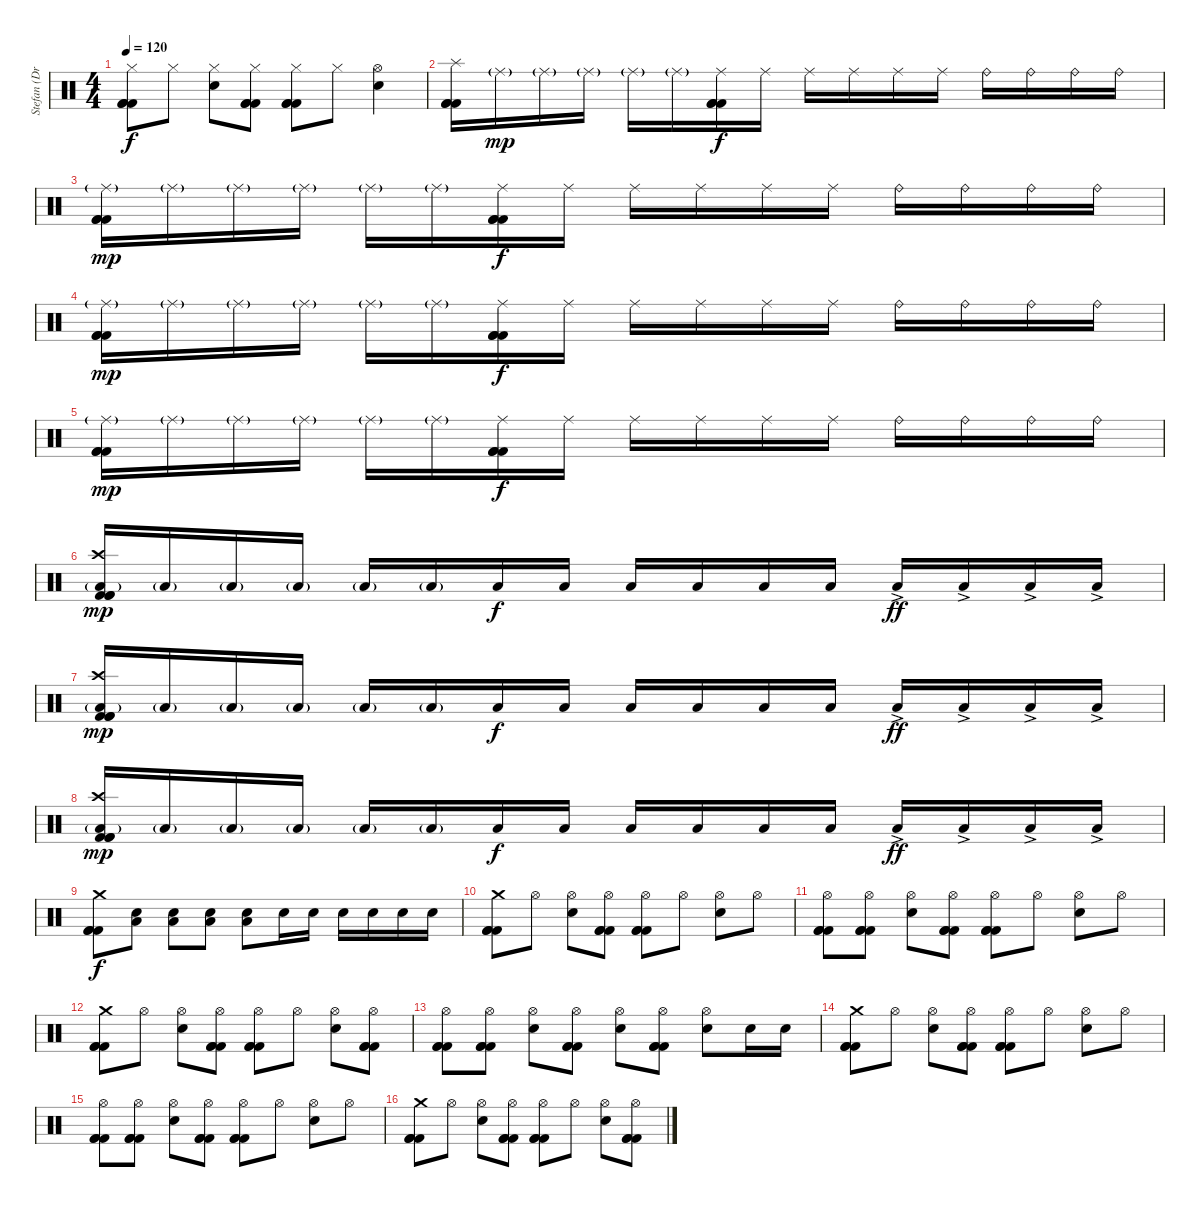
\track ("Stefan (Drums)" "Stefan (Dr") {instrument percussion}
\staff {score}
\articulation defaults
\ts (4 4)
\tempo 120
\clef neutral
\ks c
("Hi-Hat (closed)" "Kick (hit) 2" "Kick (hit) 2" "Kick (hit) 2").8{dy f} "Hi-Hat (closed)".8 ("Hi-Hat (closed)" "Snare (hit) 2").8 ("Hi-Hat (closed)" "Kick (hit) 2" "Kick (hit) 2" "Kick (hit) 2").8 ("Hi-Hat (closed)" "Kick (hit) 2" "Kick (hit) 2" "Kick (hit) 2").8 "Hi-Hat (closed)".8 ("Hi-Hat (open)" "Snare (hit) 2").4 |
("Splash (hit)" "Kick (hit) 2" "Kick (hit) 2" "Kick (hit) 2").16 "Ride (middle)"{g}.16{dy mp} "Ride (middle)"{g}.16 "Ride (middle)"{g}.16 "Ride (middle)"{g}.16 "Ride (middle)"{g}.16 ("Ride (middle)" "Kick (hit) 2" "Kick (hit) 2" "Kick (hit) 2").16{dy f} "Ride (middle)".16 "Ride (middle)".16 "Ride (middle)".16 "Ride (middle)".16 "Ride (middle)".16 "Ride (bell)".16 "Ride (bell)".16 "Ride (bell)".16 "Ride (bell)".16 |
("Ride (middle)"{g} "Kick (hit) 2" "Kick (hit) 2" "Kick (hit) 2").16{dy mp} "Ride (middle)"{g}.16 "Ride (middle)"{g}.16 "Ride (middle)"{g}.16 "Ride (middle)"{g}.16 "Ride (middle)"{g}.16 ("Ride (middle)" "Kick (hit) 2" "Kick (hit) 2" "Kick (hit) 2").16{dy f} "Ride (middle)".16 "Ride (middle)".16 "Ride (middle)".16 "Ride (middle)".16 "Ride (middle)".16 "Ride (bell)".16 "Ride (bell)".16 "Ride (bell)".16 "Ride (bell)".16 |
("Ride (middle)"{g} "Kick (hit) 2" "Kick (hit) 2" "Kick (hit) 2").16{dy mp} "Ride (middle)"{g}.16 "Ride (middle)"{g}.16 "Ride (middle)"{g}.16 "Ride (middle)"{g}.16 "Ride (middle)"{g}.16 ("Ride (middle)" "Kick (hit) 2" "Kick (hit) 2" "Kick (hit) 2").16{dy f} "Ride (middle)".16 "Ride (middle)".16 "Ride (middle)".16 "Ride (middle)".16 "Ride (middle)".16 "Ride (bell)".16 "Ride (bell)".16 "Ride (bell)".16 "Ride (bell)".16 |
("Ride (middle)"{g} "Kick (hit) 2" "Kick (hit) 2" "Kick (hit) 2").16{dy mp} "Ride (middle)"{g}.16 "Ride (middle)"{g}.16 "Ride (middle)"{g}.16 "Ride (middle)"{g}.16 "Ride (middle)"{g}.16 ("Ride (middle)" "Kick (hit) 2" "Kick (hit) 2" "Kick (hit) 2").16{dy f} "Ride (middle)".16 "Ride (middle)".16 "Ride (middle)".16 "Ride (middle)".16 "Ride (middle)".16 "Ride (bell)".16 "Ride (bell)".16 "Ride (bell)".16 "Ride (bell)".16 |
("Crash high (hit)" "Low Tom (hit)"{g} "Kick (hit) 2" "Kick (hit) 2" "Kick (hit) 2").16{dy mp} "Low Tom (hit)"{g}.16 "Low Tom (hit)"{g}.16 "Low Tom (hit)"{g}.16 "Low Tom (hit)"{g}.16 "Low Tom (hit)"{g}.16 "Low Tom (hit)".16{dy f} "Low Tom (hit)".16 "Low Tom (hit)".16 "Low Tom (hit)".16 "Low Tom (hit)".16 "Low Tom (hit)".16 "Low Tom (hit)"{ac}.16{dy ff} "Low Tom (hit)"{ac}.16 "Low Tom (hit)"{ac}.16 "Low Tom (hit)"{ac}.16 |
("Crash high (hit)" "Low Tom (hit)"{g} "Kick (hit) 2" "Kick (hit) 2" "Kick (hit) 2").16{dy mp} "Low Tom (hit)"{g}.16 "Low Tom (hit)"{g}.16 "Low Tom (hit)"{g}.16 "Low Tom (hit)"{g}.16 "Low Tom (hit)"{g}.16 "Low Tom (hit)".16{dy f} "Low Tom (hit)".16 "Low Tom (hit)".16 "Low Tom (hit)".16 "Low Tom (hit)".16 "Low Tom (hit)".16 "Low Tom (hit)"{ac}.16{dy ff} "Low Tom (hit)"{ac}.16 "Low Tom (hit)"{ac}.16 "Low Tom (hit)"{ac}.16 |
("Crash high (hit)" "Low Tom (hit)"{g} "Kick (hit) 2" "Kick (hit) 2" "Kick (hit) 2").16{dy mp} "Low Tom (hit)"{g}.16 "Low Tom (hit)"{g}.16 "Low Tom (hit)"{g}.16 "Low Tom (hit)"{g}.16 "Low Tom (hit)"{g}.16 "Low Tom (hit)".16{dy f} "Low Tom (hit)".16 "Low Tom (hit)".16 "Low Tom (hit)".16 "Low Tom (hit)".16 "Low Tom (hit)".16 "Low Tom (hit)"{ac}.16{dy ff} "Low Tom (hit)"{ac}.16 "Low Tom (hit)"{ac}.16 "Low Tom (hit)"{ac}.16 |
("Crash medium (hit)" "Kick (hit) 2" "Kick (hit) 2" "Kick (hit) 2").8{dy f} ("Snare (hit) 2" "Low Tom (hit)").8 ("Snare (hit) 2" "Low Tom (hit)").8 ("Snare (hit) 2" "Low Tom (hit)").8 ("Snare (hit) 2" "Low Tom (hit)").8 "Snare (hit) 2".16 "Snare (hit) 2".16 "Snare (hit) 2".16 "Snare (hit) 2".16 "Snare (hit) 2".16 "Snare (hit) 2".16 |
("Crash medium (hit)" "Kick (hit) 2" "Kick (hit) 2" "Kick (hit) 2").8 "Hi-Hat (open)".8 ("Hi-Hat (open)" "Snare (hit) 2").8 ("Hi-Hat (open)" "Kick (hit) 2" "Kick (hit) 2" "Kick (hit) 2").8 ("Hi-Hat (open)" "Kick (hit) 2" "Kick (hit) 2" "Kick (hit) 2").8 "Hi-Hat (open)".8 ("Hi-Hat (open)" "Snare (hit) 2").8 "Hi-Hat (open)".8 |
("Hi-Hat (open)" "Kick (hit) 2" "Kick (hit) 2" "Kick (hit) 2").8 ("Hi-Hat (open)" "Kick (hit) 2" "Kick (hit) 2" "Kick (hit) 2").8 ("Hi-Hat (open)" "Snare (hit) 2").8 ("Hi-Hat (open)" "Kick (hit) 2" "Kick (hit) 2" "Kick (hit) 2").8 ("Hi-Hat (open)" "Kick (hit) 2" "Kick (hit) 2" "Kick (hit) 2").8 "Hi-Hat (open)".8 ("Hi-Hat (open)" "Snare (hit) 2").8 "Hi-Hat (open)".8 |
("Crash medium (hit)" "Kick (hit) 2" "Kick (hit) 2" "Kick (hit) 2").8 "Hi-Hat (open)".8 ("Hi-Hat (open)" "Snare (hit) 2").8 ("Hi-Hat (open)" "Kick (hit) 2" "Kick (hit) 2" "Kick (hit) 2").8 ("Hi-Hat (open)" "Kick (hit) 2" "Kick (hit) 2" "Kick (hit) 2").8 "Hi-Hat (open)".8 ("Hi-Hat (open)" "Snare (hit) 2").8 ("Hi-Hat (open)" "Kick (hit) 2" "Kick (hit) 2" "Kick (hit) 2").8 |
("Hi-Hat (open)" "Kick (hit) 2" "Kick (hit) 2" "Kick (hit) 2").8 ("Hi-Hat (open)" "Kick (hit) 2" "Kick (hit) 2" "Kick (hit) 2").8 ("Hi-Hat (open)" "Snare (hit) 2").8 ("Hi-Hat (open)" "Kick (hit) 2" "Kick (hit) 2" "Kick (hit) 2").8 ("Hi-Hat (open)" "Snare (hit) 2").8 ("Hi-Hat (open)" "Kick (hit) 2" "Kick (hit) 2" "Kick (hit) 2").8 ("Hi-Hat (open)" "Snare (hit) 2").8 "Snare (hit) 2".16 "Snare (hit) 2".16 |
("Crash medium (hit)" "Kick (hit) 2" "Kick (hit) 2" "Kick (hit) 2").8 "Hi-Hat (open)".8 ("Hi-Hat (open)" "Snare (hit) 2").8 ("Hi-Hat (open)" "Kick (hit) 2" "Kick (hit) 2" "Kick (hit) 2").8 ("Hi-Hat (open)" "Kick (hit) 2" "Kick (hit) 2" "Kick (hit) 2").8 "Hi-Hat (open)".8 ("Hi-Hat (open)" "Snare (hit) 2").8 "Hi-Hat (open)".8 |
("Hi-Hat (open)" "Kick (hit) 2" "Kick (hit) 2" "Kick (hit) 2").8 ("Hi-Hat (open)" "Kick (hit) 2" "Kick (hit) 2" "Kick (hit) 2").8 ("Hi-Hat (open)" "Snare (hit) 2").8 ("Hi-Hat (open)" "Kick (hit) 2" "Kick (hit) 2" "Kick (hit) 2").8 ("Hi-Hat (open)" "Kick (hit) 2" "Kick (hit) 2" "Kick (hit) 2").8 "Hi-Hat (open)".8 ("Hi-Hat (open)" "Snare (hit) 2").8 "Hi-Hat (open)".8 |
("Crash medium (hit)" "Kick (hit) 2" "Kick (hit) 2" "Kick (hit) 2").8 "Hi-Hat (open)".8 ("Hi-Hat (open)" "Snare (hit) 2").8 ("Hi-Hat (open)" "Kick (hit) 2" "Kick (hit) 2" "Kick (hit) 2").8 ("Hi-Hat (open)" "Kick (hit) 2" "Kick (hit) 2" "Kick (hit) 2").8 "Hi-Hat (open)".8 ("Hi-Hat (open)" "Snare (hit) 2").8 ("Hi-Hat (open)" "Kick (hit) 2" "Kick (hit) 2" "Kick (hit) 2").8
